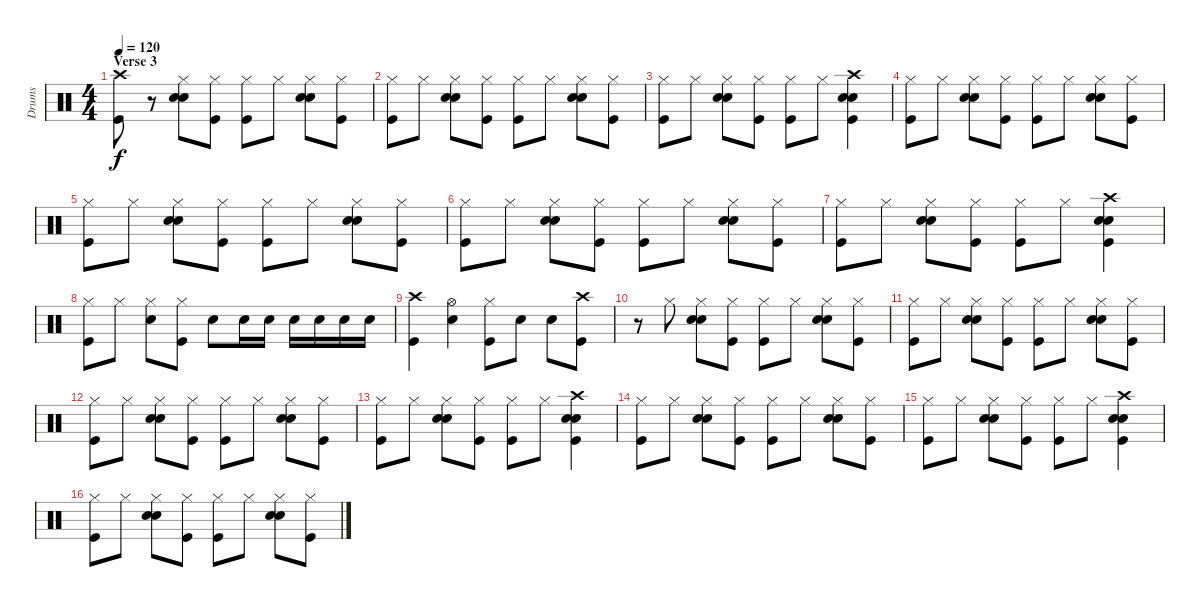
\track ("Drums" "Drums") {instrument percussion}
\staff {score}
\articulation defaults
\ts (4 4)
\section ("" "Verse 3")
\tempo 120
\clef neutral
\ks c
("Crash high (hit)" "Kick (hit)").8{dy f} r.8 ("Hi-Hat (closed)" "Snare (hit) 2" "Hand Clap (hit)").8 ("Hi-Hat (closed)" "Kick (hit)").8 ("Hi-Hat (closed)" "Kick (hit)").8 "Hi-Hat (closed)".8 ("Hi-Hat (closed)" "Snare (hit) 2" "Hand Clap (hit)").8 ("Hi-Hat (closed)" "Kick (hit)").8 |
("Hi-Hat (closed)" "Kick (hit)").8 "Hi-Hat (closed)".8 ("Hi-Hat (closed)" "Snare (hit) 2" "Hand Clap (hit)").8 ("Hi-Hat (closed)" "Kick (hit)").8 ("Hi-Hat (closed)" "Kick (hit)").8 "Hi-Hat (closed)".8 ("Hi-Hat (closed)" "Snare (hit) 2" "Hand Clap (hit)").8 ("Hi-Hat (closed)" "Kick (hit)").8 |
("Hi-Hat (closed)" "Kick (hit)").8 "Hi-Hat (closed)".8 ("Hi-Hat (closed)" "Snare (hit) 2" "Hand Clap (hit)").8 ("Hi-Hat (closed)" "Kick (hit)").8 ("Hi-Hat (closed)" "Kick (hit)").8 "Hi-Hat (closed)".8 ("Crash high (hit)" "Snare (hit) 2" "Hand Clap (hit)" "Kick (hit)").4 |
("Hi-Hat (closed)" "Kick (hit)").8 "Hi-Hat (closed)".8 ("Hi-Hat (closed)" "Snare (hit) 2" "Hand Clap (hit)").8 ("Hi-Hat (closed)" "Kick (hit)").8 ("Hi-Hat (closed)" "Kick (hit)").8 "Hi-Hat (closed)".8 ("Hi-Hat (closed)" "Snare (hit) 2" "Hand Clap (hit)").8 ("Hi-Hat (closed)" "Kick (hit)").8 |
("Hi-Hat (closed)" "Kick (hit)").8 "Hi-Hat (closed)".8 ("Hi-Hat (closed)" "Snare (hit) 2" "Hand Clap (hit)").8 ("Hi-Hat (closed)" "Kick (hit)").8 ("Hi-Hat (closed)" "Kick (hit)").8 "Hi-Hat (closed)".8 ("Hi-Hat (closed)" "Snare (hit) 2" "Hand Clap (hit)").8 ("Hi-Hat (closed)" "Kick (hit)").8 |
("Hi-Hat (closed)" "Kick (hit)").8 "Hi-Hat (closed)".8 ("Hi-Hat (closed)" "Snare (hit) 2" "Hand Clap (hit)").8 ("Hi-Hat (closed)" "Kick (hit)").8 ("Hi-Hat (closed)" "Kick (hit)").8 "Hi-Hat (closed)".8 ("Hi-Hat (closed)" "Snare (hit) 2" "Hand Clap (hit)").8 ("Hi-Hat (closed)" "Kick (hit)").8 |
("Hi-Hat (closed)" "Kick (hit)").8 "Hi-Hat (closed)".8 ("Hi-Hat (closed)" "Snare (hit) 2" "Hand Clap (hit)").8 ("Hi-Hat (closed)" "Kick (hit)").8 ("Hi-Hat (closed)" "Kick (hit)").8 "Hi-Hat (closed)".8 ("Crash high (hit)" "Snare (hit) 2" "Hand Clap (hit)" "Kick (hit)").4 |
("Hi-Hat (closed)" "Kick (hit)").8 "Hi-Hat (closed)".8 ("Hi-Hat (closed)" "Snare (hit) 2").8 ("Hi-Hat (closed)" "Kick (hit)").8 "Snare (hit) 2".8 "Snare (hit) 2".16 "Snare (hit) 2".16 "Snare (hit) 2".16 "Snare (hit) 2".16 "Snare (hit) 2".16 "Snare (hit) 2".16 |
("Crash high (hit)" "Kick (hit)").4 ("Hi-Hat (open)" "Snare (hit) 2").4 ("Hi-Hat (closed)" "Kick (hit)").8 "Snare (hit) 2".8 "Snare (hit) 2".8 ("Crash high (hit)" "Kick (hit)").8 |
r.8 "Hi-Hat (closed)".8 ("Hi-Hat (closed)" "Snare (hit) 2" "Hand Clap (hit)").8 ("Hi-Hat (closed)" "Kick (hit)").8 ("Hi-Hat (closed)" "Kick (hit)").8 "Hi-Hat (closed)".8 ("Hi-Hat (closed)" "Snare (hit) 2" "Hand Clap (hit)").8 ("Hi-Hat (closed)" "Kick (hit)").8 |
("Hi-Hat (closed)" "Kick (hit)").8 "Hi-Hat (closed)".8 ("Hi-Hat (closed)" "Snare (hit) 2" "Hand Clap (hit)").8 ("Hi-Hat (closed)" "Kick (hit)").8 ("Hi-Hat (closed)" "Kick (hit)").8 "Hi-Hat (closed)".8 ("Hi-Hat (closed)" "Snare (hit) 2" "Hand Clap (hit)").8 ("Hi-Hat (closed)" "Kick (hit)").8 |
("Hi-Hat (closed)" "Kick (hit)").8 "Hi-Hat (closed)".8 ("Hi-Hat (closed)" "Snare (hit) 2" "Hand Clap (hit)").8 ("Hi-Hat (closed)" "Kick (hit)").8 ("Hi-Hat (closed)" "Kick (hit)").8 "Hi-Hat (closed)".8 ("Hi-Hat (closed)" "Snare (hit) 2" "Hand Clap (hit)").8 ("Hi-Hat (closed)" "Kick (hit)").8 |
("Hi-Hat (closed)" "Kick (hit)").8 "Hi-Hat (closed)".8 ("Hi-Hat (closed)" "Snare (hit) 2" "Hand Clap (hit)").8 ("Hi-Hat (closed)" "Kick (hit)").8 ("Hi-Hat (closed)" "Kick (hit)").8 "Hi-Hat (closed)".8 ("Crash high (hit)" "Snare (hit) 2" "Hand Clap (hit)" "Kick (hit)").4 |
("Hi-Hat (closed)" "Kick (hit)").8 "Hi-Hat (closed)".8 ("Hi-Hat (closed)" "Snare (hit) 2" "Hand Clap (hit)").8 ("Hi-Hat (closed)" "Kick (hit)").8 ("Hi-Hat (closed)" "Kick (hit)").8 "Hi-Hat (closed)".8 ("Hi-Hat (closed)" "Snare (hit) 2" "Hand Clap (hit)").8 ("Hi-Hat (closed)" "Kick (hit)").8 |
("Hi-Hat (closed)" "Kick (hit)").8 "Hi-Hat (closed)".8 ("Hi-Hat (closed)" "Snare (hit) 2" "Hand Clap (hit)").8 ("Hi-Hat (closed)" "Kick (hit)").8 ("Hi-Hat (closed)" "Kick (hit)").8 "Hi-Hat (closed)".8 ("Crash high (hit)" "Snare (hit) 2" "Hand Clap (hit)" "Kick (hit)").4 |
("Hi-Hat (closed)" "Kick (hit)").8 "Hi-Hat (closed)".8 ("Hi-Hat (closed)" "Snare (hit) 2" "Hand Clap (hit)").8 ("Hi-Hat (closed)" "Kick (hit)").8 ("Hi-Hat (closed)" "Kick (hit)").8 "Hi-Hat (closed)".8 ("Hi-Hat (closed)" "Snare (hit) 2" "Hand Clap (hit)").8 ("Hi-Hat (closed)" "Kick (hit)").8
